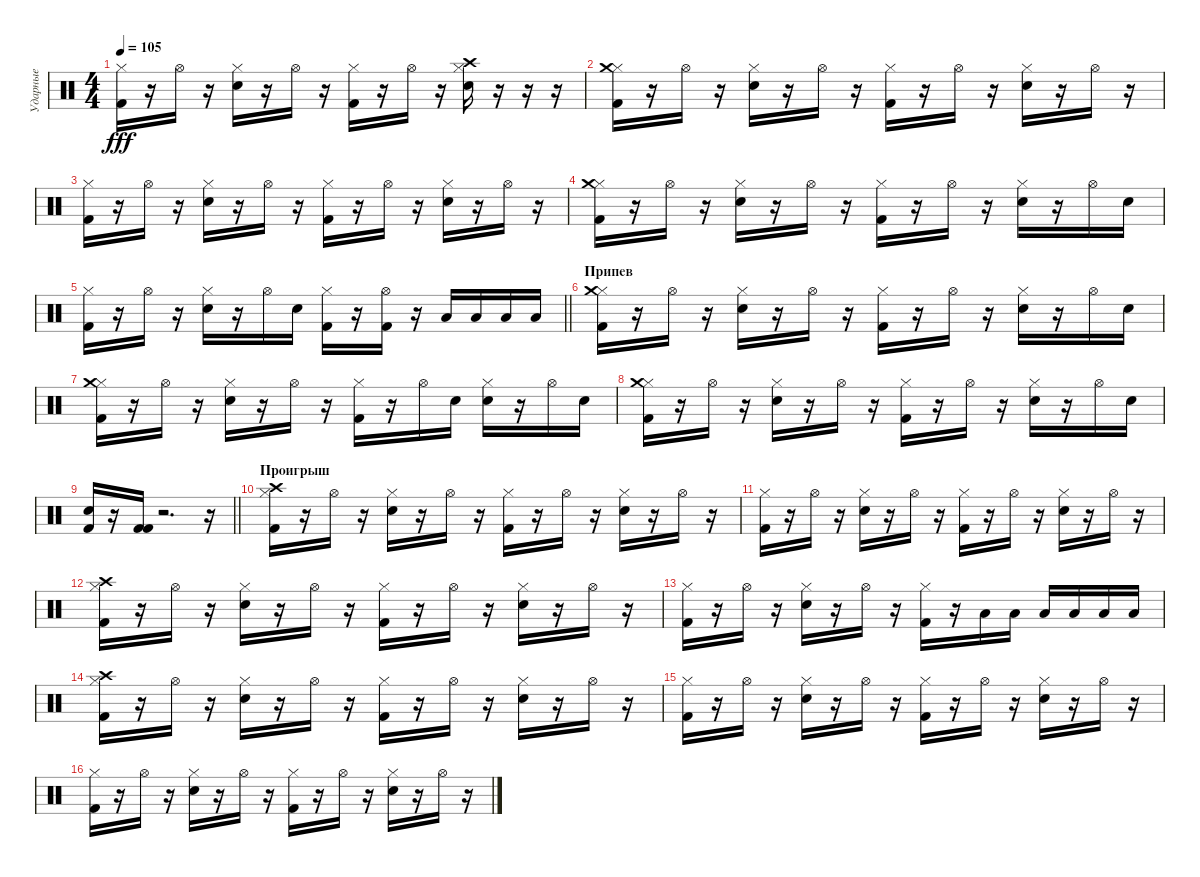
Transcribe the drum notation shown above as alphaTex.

\track ("Ударные" "Ударные") {instrument percussion}
\staff {score}
\articulation defaults
\ts (4 4)
\tempo 105
\clef neutral
\ks c
("Kick (hit) 2" "Hi-Hat (closed)").16{dy fff} r.16 "Hi-Hat (open)".16 r.16 ("Snare (hit) 2" "Hi-Hat (closed)").16 r.16 "Hi-Hat (open)".16 r.16 ("Kick (hit) 2" "Hi-Hat (closed)").16 r.16 "Hi-Hat (open)".16 r.16 ("Snare (hit) 2" "Hi-Hat (closed)" "Crash high (hit)").16 r.16 r.16 r.16 |
("Kick (hit) 2" "Hi-Hat (closed)" "Crash medium (hit)").16 r.16 "Hi-Hat (open)".16 r.16 ("Snare (hit) 2" "Hi-Hat (closed)").16 r.16 "Hi-Hat (open)".16 r.16 ("Kick (hit) 2" "Hi-Hat (closed)").16 r.16 "Hi-Hat (open)".16 r.16 ("Snare (hit) 2" "Hi-Hat (closed)").16 r.16 "Hi-Hat (open)".16 r.16 |
("Kick (hit) 2" "Hi-Hat (closed)").16 r.16 "Hi-Hat (open)".16 r.16 ("Snare (hit) 2" "Hi-Hat (closed)").16 r.16 "Hi-Hat (open)".16 r.16 ("Kick (hit) 2" "Hi-Hat (closed)").16 r.16 "Hi-Hat (open)".16 r.16 ("Snare (hit) 2" "Hi-Hat (closed)").16 r.16 "Hi-Hat (open)".16 r.16 |
("Kick (hit) 2" "Hi-Hat (closed)" "Crash medium (hit)").16 r.16 "Hi-Hat (open)".16 r.16 ("Snare (hit) 2" "Hi-Hat (closed)").16 r.16 "Hi-Hat (open)".16 r.16 ("Kick (hit) 2" "Hi-Hat (closed)").16 r.16 "Hi-Hat (open)".16 r.16 ("Snare (hit) 2" "Hi-Hat (closed)").16 r.16 "Hi-Hat (open)".16 "Snare (hit) 2".16 |
\barLineRight lightlight
("Kick (hit) 2" "Hi-Hat (closed)").16 r.16 "Hi-Hat (open)".16 r.16 ("Snare (hit) 2" "Hi-Hat (closed)").16 r.16 "Hi-Hat (open)".16 "Snare (hit) 2".16 ("Kick (hit) 2" "Hi-Hat (closed)").16 r.16 ("Kick (hit) 2" "Hi-Hat (open)").16 r.16 "Low Floor Tom (hit)".16 "Low Floor Tom (hit)".16 "Low Floor Tom (hit)".16 "Low Floor Tom (hit)".16 |
\section ("" "Припев")
("Kick (hit) 2" "Hi-Hat (closed)" "Crash medium (hit)").16 r.16 "Hi-Hat (open)".16 r.16 ("Snare (hit) 2" "Hi-Hat (closed)").16 r.16 "Hi-Hat (open)".16 r.16 ("Kick (hit) 2" "Hi-Hat (closed)").16 r.16 "Hi-Hat (open)".16 r.16 ("Snare (hit) 2" "Hi-Hat (closed)").16 r.16 "Hi-Hat (open)".16 "Snare (hit) 2".16 |
("Kick (hit) 2" "Hi-Hat (closed)" "Crash medium (hit)").16 r.16 "Hi-Hat (open)".16 r.16 ("Snare (hit) 2" "Hi-Hat (closed)").16 r.16 "Hi-Hat (open)".16 r.16 ("Kick (hit) 2" "Hi-Hat (closed)").16 r.16 "Hi-Hat (open)".16 "Snare (hit) 2".16 ("Snare (hit) 2" "Hi-Hat (closed)").16 r.16 "Hi-Hat (open)".16 "Snare (hit) 2".16 |
("Kick (hit) 2" "Hi-Hat (closed)" "Crash medium (hit)").16 r.16 "Hi-Hat (open)".16 r.16 ("Snare (hit) 2" "Hi-Hat (closed)").16 r.16 "Hi-Hat (open)".16 r.16 ("Kick (hit) 2" "Hi-Hat (closed)").16 r.16 "Hi-Hat (open)".16 r.16 ("Snare (hit) 2" "Hi-Hat (closed)").16 r.16 "Hi-Hat (open)".16 "Snare (hit) 2".16 |
\barLineRight lightlight
("Kick (hit) 2" "Snare (hit) 2").16 r.16 ("Kick (hit) 2" "Kick (hit) 2").16 r.2{d} r.16 |
\section ("" "Проигрыш")
("Kick (hit) 2" "Hi-Hat (closed)" "Crash high (hit)").16 r.16 "Hi-Hat (open)".16 r.16 ("Snare (hit) 2" "Hi-Hat (closed)").16 r.16 "Hi-Hat (open)".16 r.16 ("Kick (hit) 2" "Hi-Hat (closed)").16 r.16 "Hi-Hat (open)".16 r.16 ("Snare (hit) 2" "Hi-Hat (closed)").16 r.16 "Hi-Hat (open)".16 r.16 |
("Kick (hit) 2" "Hi-Hat (closed)").16 r.16 "Hi-Hat (open)".16 r.16 ("Snare (hit) 2" "Hi-Hat (closed)").16 r.16 "Hi-Hat (open)".16 r.16 ("Kick (hit) 2" "Hi-Hat (closed)").16 r.16 "Hi-Hat (open)".16 r.16 ("Snare (hit) 2" "Hi-Hat (closed)").16 r.16 "Hi-Hat (open)".16 r.16 |
("Kick (hit) 2" "Hi-Hat (closed)" "Crash high (hit)").16 r.16 "Hi-Hat (open)".16 r.16 ("Snare (hit) 2" "Hi-Hat (closed)").16 r.16 "Hi-Hat (open)".16 r.16 ("Kick (hit) 2" "Hi-Hat (closed)").16 r.16 "Hi-Hat (open)".16 r.16 ("Snare (hit) 2" "Hi-Hat (closed)").16 r.16 "Hi-Hat (open)".16 r.16 |
("Kick (hit) 2" "Hi-Hat (closed)").16 r.16 "Hi-Hat (open)".16 r.16 ("Snare (hit) 2" "Hi-Hat (closed)").16 r.16 "Hi-Hat (open)".16 r.16 ("Kick (hit) 2" "Hi-Hat (closed)").16 r.16 "Low Tom (hit)".16 "Low Floor Tom (hit)".16 "Low Tom (hit)".16 "Low Floor Tom (hit)".16 "Low Tom (hit)".16 "Low Floor Tom (hit)".16 |
("Kick (hit) 2" "Hi-Hat (closed)" "Crash high (hit)").16 r.16 "Hi-Hat (open)".16 r.16 ("Snare (hit) 2" "Hi-Hat (closed)").16 r.16 "Hi-Hat (open)".16 r.16 ("Kick (hit) 2" "Hi-Hat (closed)").16 r.16 "Hi-Hat (open)".16 r.16 ("Snare (hit) 2" "Hi-Hat (closed)").16 r.16 "Hi-Hat (open)".16 r.16 |
("Kick (hit) 2" "Hi-Hat (closed)").16 r.16 "Hi-Hat (open)".16 r.16 ("Snare (hit) 2" "Hi-Hat (closed)").16 r.16 "Hi-Hat (open)".16 r.16 ("Kick (hit) 2" "Hi-Hat (closed)").16 r.16 "Hi-Hat (open)".16 r.16 ("Snare (hit) 2" "Hi-Hat (closed)").16 r.16 "Hi-Hat (open)".16 r.16 |
("Kick (hit) 2" "Hi-Hat (closed)").16 r.16 "Hi-Hat (open)".16 r.16 ("Snare (hit) 2" "Hi-Hat (closed)").16 r.16 "Hi-Hat (open)".16 r.16 ("Kick (hit) 2" "Hi-Hat (closed)").16 r.16 "Hi-Hat (open)".16 r.16 ("Snare (hit) 2" "Hi-Hat (closed)").16 r.16 "Hi-Hat (open)".16 r.16
